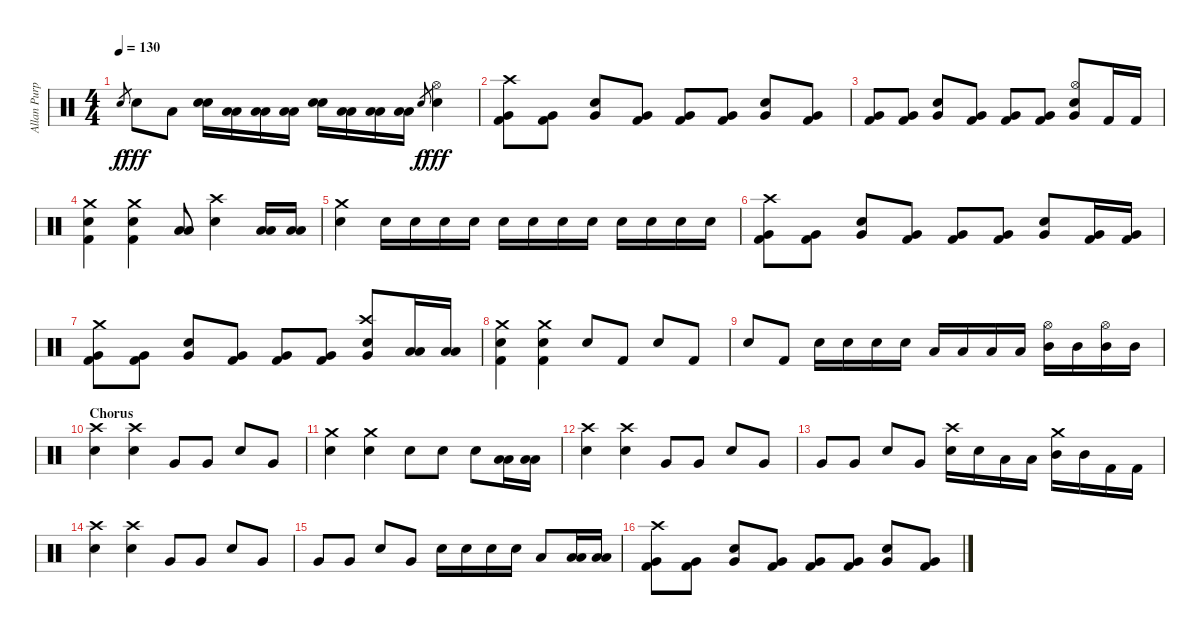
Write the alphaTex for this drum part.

\track ("Allan Purple" "Allan Purp") {instrument percussion}
\staff {score}
\articulation defaults
\ts (4 4)
\tempo 130
\clef neutral
\ks c "Snare (hit) 2".8{gr dy f} "Snare (hit) 2".8{dy fff} "Low Tom (hit)".8
("Electric Snare (hit)" "Electric Snare (hit)").16 ("Low Tom (hit)" "Low Tom (hit)").16 ("Low Tom (hit)" "Low Tom (hit)").16 ("Low Tom (hit)" "Low Tom (hit)").16 ("Electric Snare (hit)" "Electric Snare (hit)").16 ("Low Tom (hit)" "Low Tom (hit)").16 ("Low Tom (hit)" "Low Tom (hit)").16 ("Low Tom (hit)" "Low Tom (hit)").16 "Electric Snare (hit)".8{gr dy f} ("Hi-Hat (open)" "Electric Snare (hit)").4{dy fff} |
("Crash high (hit)" "Kick (hit) 2" "Very Low Tom (hit)").8 ("Kick (hit) 2" "Very Low Tom (hit)").8 ("Electric Snare (hit)" "Very Low Tom (hit)").8 ("Kick (hit) 2" "Very Low Tom (hit)").8 ("Kick (hit) 2" "Very Low Tom (hit)").8 ("Kick (hit) 2" "Very Low Tom (hit)").8 ("Electric Snare (hit)" "Very Low Tom (hit)").8 ("Kick (hit) 2" "Very Low Tom (hit)").8 |
("Kick (hit) 2" "Very Low Tom (hit)").8 ("Kick (hit) 2" "Very Low Tom (hit)").8 ("Electric Snare (hit)" "Very Low Tom (hit)").8 ("Kick (hit) 2" "Very Low Tom (hit)").8 ("Kick (hit) 2" "Very Low Tom (hit)").8 ("Kick (hit) 2" "Very Low Tom (hit)").8 ("Hi-Hat (open)" "Electric Snare (hit)" "Very Low Tom (hit)").8 "Kick (hit) 2".16 "Kick (hit) 2".16 |
("Crash medium (hit)" "Kick (hit) 2" "Electric Snare (hit)").4 ("Crash medium (hit)" "Kick (hit) 2" "Electric Snare (hit)").4 ("Low Tom (hit)" "Low Tom (hit)").8 ("Crash high (hit)" "Snare (hit) 2").4 ("Low Tom (hit)" "Low Tom (hit)").16 ("Low Tom (hit)" "Low Tom (hit)").16 |
("Crash medium (hit)" "Electric Snare (hit)").4 "Electric Snare (hit)".16 "Electric Snare (hit)".16 "Electric Snare (hit)".16 "Electric Snare (hit)".16 "Electric Snare (hit)".16 "Electric Snare (hit)".16 "Snare (hit) 2".16 "Snare (hit) 2".16 "Snare (hit) 2".16 "Snare (hit) 2".16 "Snare (hit) 2".16 "Snare (hit) 2".16 |
("Crash high (hit)" "Kick (hit) 2" "Very Low Tom (hit)").8 ("Kick (hit) 2" "Very Low Tom (hit)").8 ("Electric Snare (hit)" "Very Low Tom (hit)").8 ("Kick (hit) 2" "Very Low Tom (hit)").8 ("Kick (hit) 2" "Very Low Tom (hit)").8 ("Kick (hit) 2" "Very Low Tom (hit)").8 ("Electric Snare (hit)" "Very Low Tom (hit)").8 ("Kick (hit) 2" "Very Low Tom (hit)").16 ("Kick (hit) 2" "Very Low Tom (hit)").16 |
("Crash medium (hit)" "Kick (hit) 2" "Very Low Tom (hit)").8 ("Kick (hit) 2" "Very Low Tom (hit)").8 ("Electric Snare (hit)" "Very Low Tom (hit)").8 ("Kick (hit) 2" "Very Low Tom (hit)").8 ("Kick (hit) 2" "Very Low Tom (hit)").8 ("Kick (hit) 2" "Very Low Tom (hit)").8 ("Crash high (hit)" "Electric Snare (hit)" "Very Low Tom (hit)").8 ("Low Tom (hit)" "Low Tom (hit)").16 ("Low Tom (hit)" "Low Tom (hit)").16 |
("Crash medium (hit)" "Kick (hit) 2" "Electric Snare (hit)").4 ("Crash medium (hit)" "Kick (hit) 2" "Electric Snare (hit)").4 "Electric Snare (hit)".8 "Kick (hit) 2".8 "Electric Snare (hit)".8 "Kick (hit) 2".8 |
"Electric Snare (hit)".8 "Kick (hit) 2".8 "Electric Snare (hit)".16 "Electric Snare (hit)".16 "Electric Snare (hit)".16 "Electric Snare (hit)".16 "Low Tom (hit)".16 "Low Tom (hit)".16 "Low Tom (hit)".16 "Low Tom (hit)".16 ("Hi-Hat (open)" "Mid Tom (hit)").16 "Mid Tom (hit)".16 ("Hi-Hat (open)" "Mid Tom (hit)").16 "Mid Tom (hit)".16 |
\section ("" "Chorus")
("Crash high (hit)" "Electric Snare (hit)").4 ("Crash high (hit)" "Electric Snare (hit)").4 "Very Low Tom (hit)".8 "Very Low Tom (hit)".8 "Electric Snare (hit)".8 "Very Low Tom (hit)".8 |
("Crash medium (hit)" "Electric Snare (hit)").4 ("Crash medium (hit)" "Electric Snare (hit)").4 "Snare (hit) 2".8 "Snare (hit) 2".8 "Electric Snare (hit)".8 ("Low Tom (hit)" "Low Tom (hit)").16 ("Low Tom (hit)" "Low Tom (hit)").16 |
("Crash high (hit)" "Electric Snare (hit)").4 ("Crash high (hit)" "Electric Snare (hit)").4 "Very Low Tom (hit)".8 "Very Low Tom (hit)".8 "Electric Snare (hit)".8 "Very Low Tom (hit)".8 |
"Very Low Tom (hit)".8 "Very Low Tom (hit)".8 "Electric Snare (hit)".8 "Very Low Tom (hit)".8 ("Crash high (hit)" "Electric Snare (hit)").16 "Electric Snare (hit)".16 "Low Tom (hit)".16 "Low Tom (hit)".16 ("Crash medium (hit)" "Mid Tom (hit)").16 "Mid Tom (hit)".16 "Kick (hit) 2".16 "Kick (hit) 2".16 |
("Crash high (hit)" "Electric Snare (hit)").4 ("Crash high (hit)" "Electric Snare (hit)").4 "Very Low Tom (hit)".8 "Very Low Tom (hit)".8 "Electric Snare (hit)".8 "Very Low Tom (hit)".8 |
"Very Low Tom (hit)".8 "Very Low Tom (hit)".8 "Electric Snare (hit)".8 "Very Low Tom (hit)".8 "Electric Snare (hit)".16 "Electric Snare (hit)".16 "Snare (hit) 2".16 "Snare (hit) 2".16 "Low Tom (hit)".8 ("Low Tom (hit)" "Low Tom (hit)").16 ("Low Tom (hit)" "Low Tom (hit)").16 |
("Crash high (hit)" "Kick (hit) 2" "Very Low Tom (hit)").8 ("Kick (hit) 2" "Very Low Tom (hit)").8 ("Electric Snare (hit)" "Very Low Tom (hit)").8 ("Kick (hit) 2" "Very Low Tom (hit)").8 ("Kick (hit) 2" "Very Low Tom (hit)").8 ("Kick (hit) 2" "Very Low Tom (hit)").8 ("Electric Snare (hit)" "Very Low Tom (hit)").8 ("Kick (hit) 2" "Very Low Tom (hit)").8
